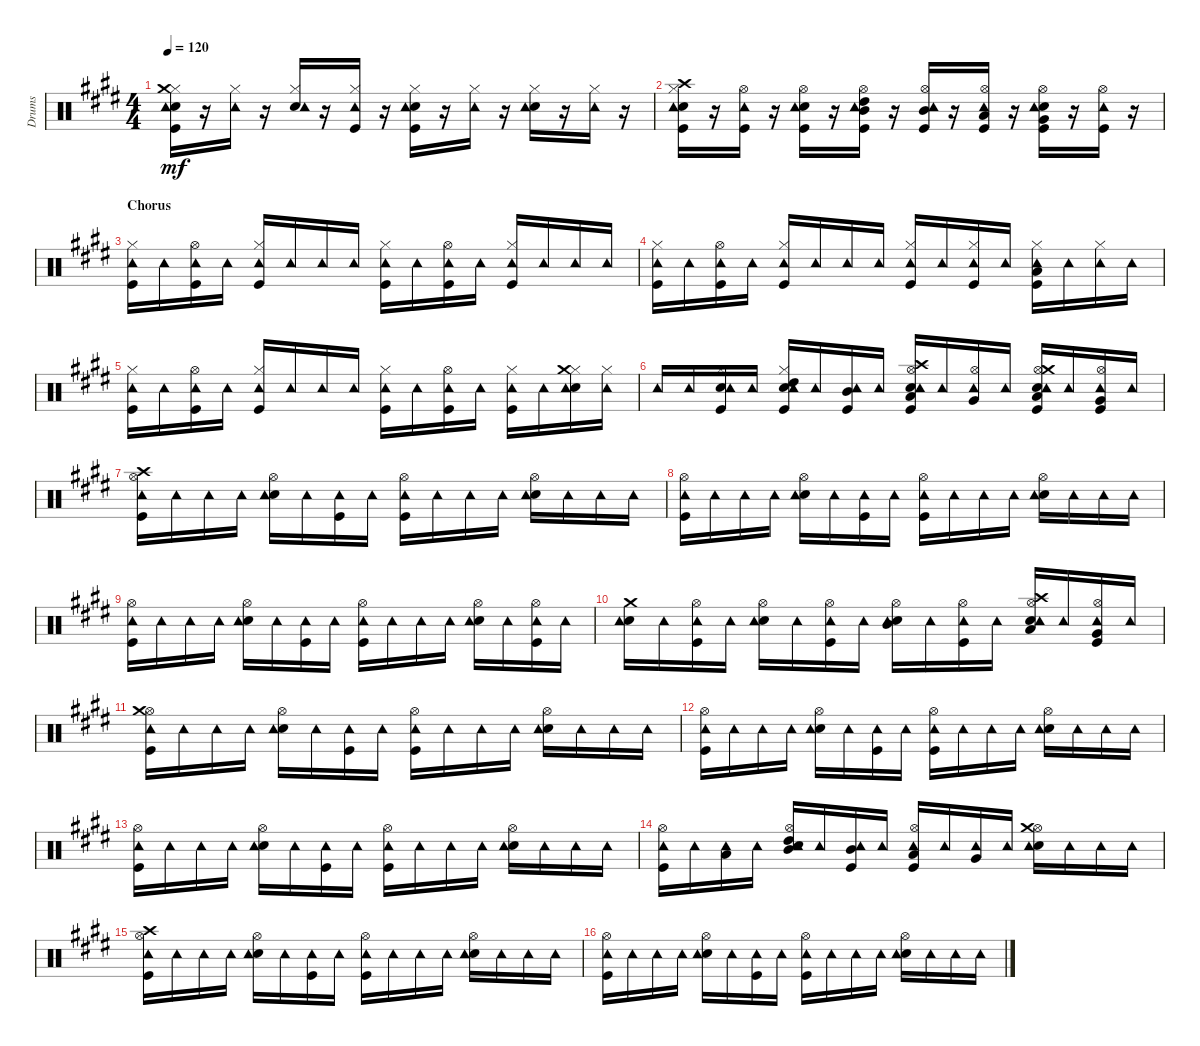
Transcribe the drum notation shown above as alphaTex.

\track ("Drums" "Drums") {instrument percussion}
\staff {score}
\articulation defaults
\ts (4 4)
\tempo 120
\clef neutral
\ks c#minor
("Kick (hit)" "Snare (hit) 2" "Hi-Hat (closed)" "Tambourine (hit)" "Crash medium (hit)").16{dy mf} r.16 ("Hi-Hat (closed)" "Tambourine (hit)").16 r.16 ("Snare (hit) 2" "Hi-Hat (closed)" "Tambourine (hit)").16 r.16 ("Kick (hit)" "Hi-Hat (closed)" "Tambourine (hit)").16 r.16 ("Kick (hit)" "Snare (hit) 2" "Hi-Hat (closed)" "Tambourine (hit)").16 r.16 ("Hi-Hat (closed)" "Tambourine (hit)").16 r.16 ("Snare (hit) 2" "Hi-Hat (closed)" "Tambourine (hit)").16 r.16 ("Hi-Hat (closed)" "Tambourine (hit)").16 r.16 |
("Kick (hit)" "Snare (hit) 2" "Hi-Hat (closed)" "Crash high (hit)" "Tambourine (hit)").16 r.16 ("Kick (hit)" "Hi-Hat (open)" "Tambourine (hit)").16 r.16 ("Kick (hit)" "Snare (hit) 2" "Hi-Hat (open)" "Tambourine (hit)").16 r.16 ("Kick (hit)" "Hi-Hat (open)" "Mid Tom (hit)" "High Tom (hit)" "Tambourine (hit)").16 r.16 ("Kick (hit)" "Hi-Hat (open)" "Mid Tom (hit)" "Tambourine (hit)").16 r.16 ("Kick (hit)" "Low Tom (hit)" "Hi-Hat (open)" "Tambourine (hit)").16 r.16 ("Kick (hit)" "Snare (hit) 2" "Very Low Tom (hit)" "Hi-Hat (open)" "Tambourine (hit)").16 r.16 ("Kick (hit)" "Hi-Hat (open)" "Tambourine (hit)").16 r.16 |
\section ("" "Chorus")
("Kick (hit)" "Hi-Hat (closed)" "Tambourine (hit)").16 "Tambourine (hit)".16 ("Kick (hit)" "Hi-Hat (open)" "Tambourine (hit)").16 "Tambourine (hit)".16 ("Kick (hit)" "Hi-Hat (closed)" "Tambourine (hit)").16 "Tambourine (hit)".16 "Tambourine (hit)".16 "Tambourine (hit)".16 ("Kick (hit)" "Hi-Hat (closed)" "Tambourine (hit)").16 "Tambourine (hit)".16 ("Kick (hit)" "Hi-Hat (open)" "Tambourine (hit)").16 "Tambourine (hit)".16 ("Kick (hit)" "Hi-Hat (closed)" "Tambourine (hit)").16 "Tambourine (hit)".16 "Tambourine (hit)".16 "Tambourine (hit)".16 |
("Kick (hit)" "Hi-Hat (closed)" "Tambourine (hit)").16 "Tambourine (hit)".16 ("Kick (hit)" "Hi-Hat (open)" "Tambourine (hit)").16 "Tambourine (hit)".16 ("Kick (hit)" "Hi-Hat (closed)" "Tambourine (hit)").16 "Tambourine (hit)".16 "Tambourine (hit)".16 "Tambourine (hit)".16 ("Kick (hit)" "Hi-Hat (closed)" "Tambourine (hit)").16 "Tambourine (hit)".16 ("Kick (hit)" "Hi-Hat (closed)" "Tambourine (hit)").16 "Tambourine (hit)".16 ("Kick (hit)" "Hi-Hat (closed)" "Low Tom (hit)" "Tambourine (hit)").16 "Tambourine (hit)".16 ("Hi-Hat (closed)" "Tambourine (hit)").16 "Tambourine (hit)".16 |
("Kick (hit)" "Hi-Hat (closed)" "Tambourine (hit)").16 "Tambourine (hit)".16 ("Kick (hit)" "Hi-Hat (open)" "Tambourine (hit)").16 "Tambourine (hit)".16 ("Kick (hit)" "Hi-Hat (closed)" "Tambourine (hit)").16 "Tambourine (hit)".16 "Tambourine (hit)".16 "Tambourine (hit)".16 ("Kick (hit)" "Hi-Hat (closed)" "Tambourine (hit)").16 "Tambourine (hit)".16 ("Kick (hit)" "Hi-Hat (open)" "Tambourine (hit)").16 "Tambourine (hit)".16 ("Kick (hit)" "Hi-Hat (closed)" "Tambourine (hit)").16 "Tambourine (hit)".16 ("Snare (hit) 2" "Hi-Hat (closed)" "Tambourine (hit)" "Crash medium (hit)").16 ("Hi-Hat (closed)" "Tambourine (hit)").16 |
"Tambourine (hit)".16 "Tambourine (hit)".16 ("Kick (hit)" "Snare (hit) 2" "Hi-Hat (closed)" "Tambourine (hit)").16 "Tambourine (hit)".16 ("Kick (hit)" "Snare (hit) 2" "Hi-Hat (closed)" "High Tom (hit)" "Tambourine (hit)").16 "Tambourine (hit)".16 ("Kick (hit)" "Mid Tom (hit)" "Tambourine (hit)").16 "Tambourine (hit)".16 ("Kick (hit)" "Snare (hit) 2" "Low Tom (hit)" "Hi-Hat (open)" "Crash high (hit)" "Tambourine (hit)").16 "Tambourine (hit)".16 ("Very Low Tom (hit)" "Hi-Hat (open)" "Tambourine (hit)").16 "Tambourine (hit)".16 ("Kick (hit)" "Snare (hit) 2" "Low Tom (hit)" "Hi-Hat (open)" "Tambourine (hit)" "Crash medium (hit)").16 "Tambourine (hit)".16 ("Kick (hit)" "Very Low Tom (hit)" "Hi-Hat (open)" "Tambourine (hit)").16 "Tambourine (hit)".16 |
("Kick (hit)" "Hi-Hat (open)" "Crash high (hit)" "Tambourine (hit)").16 "Tambourine (hit)".16 "Tambourine (hit)".16 "Tambourine (hit)".16 ("Snare (hit) 2" "Hi-Hat (open)" "Tambourine (hit)").16 "Tambourine (hit)".16 ("Kick (hit)" "Tambourine (hit)").16 "Tambourine (hit)".16 ("Kick (hit)" "Hi-Hat (open)" "Tambourine (hit)").16 "Tambourine (hit)".16 "Tambourine (hit)".16 "Tambourine (hit)".16 ("Snare (hit) 2" "Hi-Hat (open)" "Tambourine (hit)").16 "Tambourine (hit)".16 "Tambourine (hit)".16 "Tambourine (hit)".16 |
("Kick (hit)" "Hi-Hat (open)" "Tambourine (hit)").16 "Tambourine (hit)".16 "Tambourine (hit)".16 "Tambourine (hit)".16 ("Snare (hit) 2" "Hi-Hat (open)" "Tambourine (hit)").16 "Tambourine (hit)".16 ("Kick (hit)" "Tambourine (hit)").16 "Tambourine (hit)".16 ("Kick (hit)" "Hi-Hat (open)" "Tambourine (hit)").16 "Tambourine (hit)".16 "Tambourine (hit)".16 "Tambourine (hit)".16 ("Snare (hit) 2" "Hi-Hat (open)" "Tambourine (hit)").16 "Tambourine (hit)".16 "Tambourine (hit)".16 "Tambourine (hit)".16 |
("Kick (hit)" "Hi-Hat (open)" "Tambourine (hit)").16 "Tambourine (hit)".16 "Tambourine (hit)".16 "Tambourine (hit)".16 ("Snare (hit) 2" "Hi-Hat (open)" "Tambourine (hit)").16 "Tambourine (hit)".16 ("Kick (hit)" "Tambourine (hit)").16 "Tambourine (hit)".16 ("Kick (hit)" "Hi-Hat (open)" "Tambourine (hit)").16 "Tambourine (hit)".16 "Tambourine (hit)".16 "Tambourine (hit)".16 ("Snare (hit) 2" "Hi-Hat (open)" "Tambourine (hit)").16 "Tambourine (hit)".16 ("Kick (hit)" "Hi-Hat (open)" "Tambourine (hit)").16 "Tambourine (hit)".16 |
("Snare (hit) 2" "Tambourine (hit)" "Crash medium (hit)").16 "Tambourine (hit)".16 ("Kick (hit)" "Hi-Hat (open)" "Tambourine (hit)").16 "Tambourine (hit)".16 ("Snare (hit) 2" "Hi-Hat (open)" "Tambourine (hit)").16 "Tambourine (hit)".16 ("Kick (hit)" "Hi-Hat (open)" "Tambourine (hit)").16 "Tambourine (hit)".16 ("Snare (hit) 2" "Hi-Hat (open)" "Mid Tom (hit)" "Tambourine (hit)").16 "Tambourine (hit)".16 ("Kick (hit)" "Hi-Hat (open)" "Tambourine (hit)").16 "Tambourine (hit)".16 ("Snare (hit) 2" "Low Tom (hit)" "Hi-Hat (open)" "Crash high (hit)" "Tambourine (hit)").16 "Tambourine (hit)".16 ("Kick (hit)" "Very Low Tom (hit)" "Hi-Hat (open)" "Tambourine (hit)").16 "Tambourine (hit)".16 |
("Kick (hit)" "Hi-Hat (open)" "Tambourine (hit)" "Crash medium (hit)").16 "Tambourine (hit)".16 "Tambourine (hit)".16 "Tambourine (hit)".16 ("Snare (hit) 2" "Hi-Hat (open)" "Tambourine (hit)").16 "Tambourine (hit)".16 ("Kick (hit)" "Tambourine (hit)").16 "Tambourine (hit)".16 ("Kick (hit)" "Hi-Hat (open)" "Tambourine (hit)").16 "Tambourine (hit)".16 "Tambourine (hit)".16 "Tambourine (hit)".16 ("Snare (hit) 2" "Hi-Hat (open)" "Tambourine (hit)").16 "Tambourine (hit)".16 "Tambourine (hit)".16 "Tambourine (hit)".16 |
("Kick (hit)" "Hi-Hat (open)" "Tambourine (hit)").16 "Tambourine (hit)".16 "Tambourine (hit)".16 "Tambourine (hit)".16 ("Snare (hit) 2" "Hi-Hat (open)" "Tambourine (hit)").16 "Tambourine (hit)".16 ("Kick (hit)" "Tambourine (hit)").16 "Tambourine (hit)".16 ("Kick (hit)" "Hi-Hat (open)" "Tambourine (hit)").16 "Tambourine (hit)".16 "Tambourine (hit)".16 "Tambourine (hit)".16 ("Snare (hit) 2" "Hi-Hat (open)" "Tambourine (hit)").16 "Tambourine (hit)".16 "Tambourine (hit)".16 "Tambourine (hit)".16 |
("Kick (hit)" "Hi-Hat (open)" "Tambourine (hit)").16 "Tambourine (hit)".16 "Tambourine (hit)".16 "Tambourine (hit)".16 ("Snare (hit) 2" "Hi-Hat (open)" "Tambourine (hit)").16 "Tambourine (hit)".16 ("Kick (hit)" "Tambourine (hit)").16 "Tambourine (hit)".16 ("Kick (hit)" "Hi-Hat (open)" "Tambourine (hit)").16 "Tambourine (hit)".16 "Tambourine (hit)".16 "Tambourine (hit)".16 ("Snare (hit) 2" "Hi-Hat (open)" "Tambourine (hit)").16 "Tambourine (hit)".16 "Tambourine (hit)".16 "Tambourine (hit)".16 |
("Kick (hit)" "Hi-Hat (open)" "Tambourine (hit)").16 "Tambourine (hit)".16 ("Low Tom (hit)" "Tambourine (hit)").16 "Tambourine (hit)".16 ("Snare (hit) 2" "Hi-Hat (open)" "Mid Tom (hit)" "High Tom (hit)" "Tambourine (hit)").16 "Tambourine (hit)".16 ("Kick (hit)" "Mid Tom (hit)" "Tambourine (hit)").16 "Tambourine (hit)".16 ("Kick (hit)" "Low Tom (hit)" "Hi-Hat (open)" "Tambourine (hit)").16 "Tambourine (hit)".16 ("Very Low Tom (hit)" "Tambourine (hit)").16 "Tambourine (hit)".16 ("Snare (hit) 2" "Hi-Hat (open)" "Tambourine (hit)" "Crash medium (hit)").16 "Tambourine (hit)".16 "Tambourine (hit)".16 "Tambourine (hit)".16 |
("Kick (hit)" "Hi-Hat (open)" "Crash high (hit)" "Tambourine (hit)").16 "Tambourine (hit)".16 "Tambourine (hit)".16 "Tambourine (hit)".16 ("Snare (hit) 2" "Hi-Hat (open)" "Tambourine (hit)").16 "Tambourine (hit)".16 ("Kick (hit)" "Tambourine (hit)").16 "Tambourine (hit)".16 ("Kick (hit)" "Hi-Hat (open)" "Tambourine (hit)").16 "Tambourine (hit)".16 "Tambourine (hit)".16 "Tambourine (hit)".16 ("Snare (hit) 2" "Hi-Hat (open)" "Tambourine (hit)").16 "Tambourine (hit)".16 "Tambourine (hit)".16 "Tambourine (hit)".16 |
("Kick (hit)" "Hi-Hat (open)" "Tambourine (hit)").16 "Tambourine (hit)".16 "Tambourine (hit)".16 "Tambourine (hit)".16 ("Snare (hit) 2" "Hi-Hat (open)" "Tambourine (hit)").16 "Tambourine (hit)".16 ("Kick (hit)" "Tambourine (hit)").16 "Tambourine (hit)".16 ("Kick (hit)" "Hi-Hat (open)" "Tambourine (hit)").16 "Tambourine (hit)".16 "Tambourine (hit)".16 "Tambourine (hit)".16 ("Snare (hit) 2" "Hi-Hat (open)" "Tambourine (hit)").16 "Tambourine (hit)".16 "Tambourine (hit)".16 "Tambourine (hit)".16
